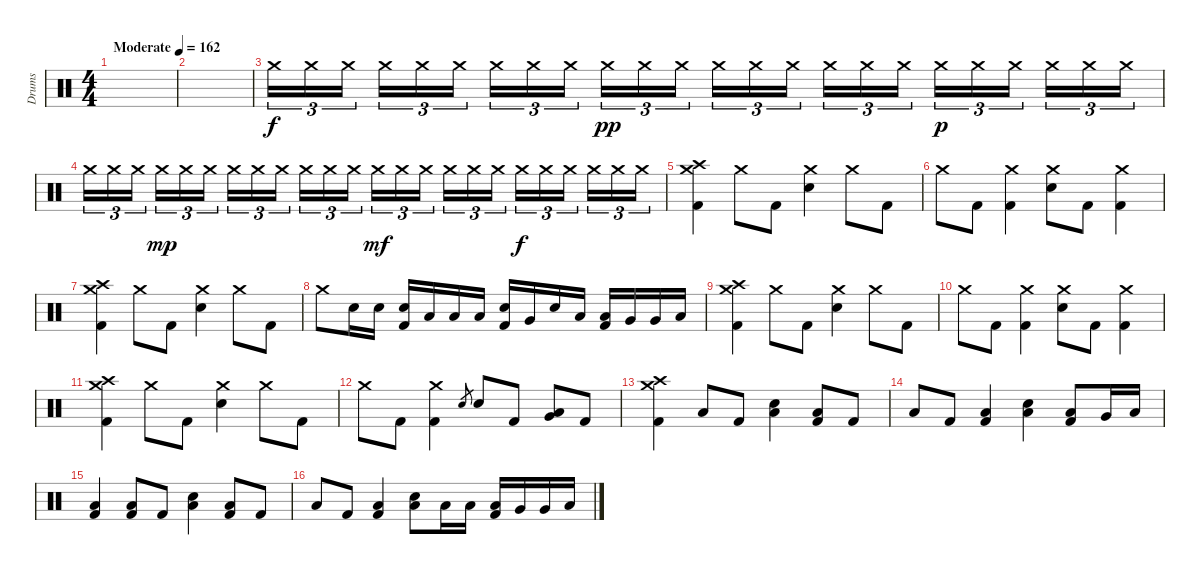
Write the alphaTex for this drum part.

\track ("Drums" "Drums") {instrument percussion}
\staff {score}
\articulation defaults
\ts (4 4)
\tempo (162 "Moderate")
\clef neutral
\ks c
|
|
"Crash medium (hit)".16{tu (3 2) volume 15} "Crash medium (hit)".16{tu (3 2)} "Crash medium (hit)".16{tu (3 2) beam splitsecondary} "Crash medium (hit)".16{tu (3 2)} "Crash medium (hit)".16{tu (3 2)} "Crash medium (hit)".16{tu (3 2)} "Crash medium (hit)".16{tu (3 2)} "Crash medium (hit)".16{tu (3 2)} "Crash medium (hit)".16{tu (3 2) beam splitsecondary} "Crash medium (hit)".16{tu (3 2) dy pp} "Crash medium (hit)".16{tu (3 2)} "Crash medium (hit)".16{tu (3 2)} "Crash medium (hit)".16{tu (3 2)} "Crash medium (hit)".16{tu (3 2)} "Crash medium (hit)".16{tu (3 2) beam splitsecondary} "Crash medium (hit)".16{tu (3 2)} "Crash medium (hit)".16{tu (3 2)} "Crash medium (hit)".16{tu (3 2)} "Crash medium (hit)".16{tu (3 2) dy p} "Crash medium (hit)".16{tu (3 2)} "Crash medium (hit)".16{tu (3 2) beam splitsecondary} "Crash medium (hit)".16{tu (3 2)} "Crash medium (hit)".16{tu (3 2)} "Crash medium (hit)".16{tu (3 2)} |
"Crash medium (hit)".16{tu (3 2)} "Crash medium (hit)".16{tu (3 2)} "Crash medium (hit)".16{tu (3 2) beam splitsecondary} "Crash medium (hit)".16{tu (3 2) dy mp} "Crash medium (hit)".16{tu (3 2)} "Crash medium (hit)".16{tu (3 2)} "Crash medium (hit)".16{tu (3 2)} "Crash medium (hit)".16{tu (3 2)} "Crash medium (hit)".16{tu (3 2) beam splitsecondary} "Crash medium (hit)".16{tu (3 2)} "Crash medium (hit)".16{tu (3 2)} "Crash medium (hit)".16{tu (3 2)} "Crash medium (hit)".16{tu (3 2) dy mf} "Crash medium (hit)".16{tu (3 2)} "Crash medium (hit)".16{tu (3 2) beam splitsecondary} "Crash medium (hit)".16{tu (3 2)} "Crash medium (hit)".16{tu (3 2)} "Crash medium (hit)".16{tu (3 2)} "Crash medium (hit)".16{tu (3 2) dy f} "Crash medium (hit)".16{tu (3 2)} "Crash medium (hit)".16{tu (3 2) beam splitsecondary} "Crash medium (hit)".16{tu (3 2)} "Crash medium (hit)".16{tu (3 2)} "Crash medium (hit)".16{tu (3 2)} |
("Crash medium (hit)" "Crash high (hit)" "Kick (hit) 2").4{volume 16} "Crash medium (hit)".8 "Kick (hit) 2".8 ("Crash medium (hit)" "Electric Snare (hit)").4 "Crash medium (hit)".8 "Kick (hit) 2".8 |
"Crash medium (hit)".8 "Kick (hit) 2".8 ("Crash medium (hit)" "Kick (hit) 2").4 ("Crash medium (hit)" "Electric Snare (hit)").8 "Kick (hit) 2".8 ("Crash medium (hit)" "Kick (hit) 2").4 |
("Crash medium (hit)" "Crash high (hit)" "Kick (hit) 2").4 "Crash medium (hit)".8 "Kick (hit) 2".8 ("Crash medium (hit)" "Electric Snare (hit)").4 "Crash medium (hit)".8 "Kick (hit) 2".8 |
"Crash medium (hit)".8 "Electric Snare (hit)".16 "Electric Snare (hit)".16 ("Electric Snare (hit)" "Kick (hit) 2").16 "Low Tom (hit)".16 "Low Tom (hit)".16 "Low Tom (hit)".16 ("Electric Snare (hit)" "Kick (hit) 2").16 "Very Low Tom (hit)".16 "Electric Snare (hit)".16 "Low Tom (hit)".16 ("Low Tom (hit)" "Kick (hit) 2").16 "Very Low Tom (hit)".16 "Very Low Tom (hit)".16 "Low Floor Tom (hit)".16 |
("Crash medium (hit)" "Crash high (hit)" "Kick (hit) 2").4 "Crash medium (hit)".8 "Kick (hit) 2".8 ("Crash medium (hit)" "Electric Snare (hit)").4 "Crash medium (hit)".8 "Kick (hit) 2".8 |
"Crash medium (hit)".8 "Kick (hit) 2".8 ("Crash medium (hit)" "Kick (hit) 2").4 ("Crash medium (hit)" "Electric Snare (hit)").8 "Kick (hit) 2".8 ("Crash medium (hit)" "Kick (hit) 2").4 |
("Crash medium (hit)" "Crash high (hit)" "Kick (hit) 2").4 "Crash medium (hit)".8 "Kick (hit) 2".8 ("Crash medium (hit)" "Electric Snare (hit)").4 "Crash medium (hit)".8 "Kick (hit) 2".8 |
"Crash medium (hit)".8 "Kick (hit) 2".8 ("Crash medium (hit)" "Kick (hit) 2").4 "Electric Snare (hit)".8{gr} "Electric Snare (hit)".8 "Kick (hit) 2".8 ("Very Low Tom (hit)" "Low Tom (hit)").8{bd 120} "Kick (hit) 2".8 |
("Crash medium (hit)" "Crash high (hit)" "Kick (hit) 2").4 "Low Floor Tom (hit)".8 "Kick (hit) 2".8 ("Low Floor Tom (hit)" "Electric Snare (hit)").4 ("Low Floor Tom (hit)" "Kick (hit) 2").8 "Kick (hit) 2".8 |
"Low Floor Tom (hit)".8 "Kick (hit) 2".8 ("Low Floor Tom (hit)" "Kick (hit) 2").4 ("Low Floor Tom (hit)" "Electric Snare (hit)").4 ("Low Tom (hit)" "Kick (hit) 2").8 "Very Low Tom (hit)".16 "Low Floor Tom (hit)".16 |
("Low Floor Tom (hit)" "Kick (hit) 2").4 ("Low Floor Tom (hit)" "Kick (hit) 2").8 "Kick (hit) 2".8 ("Low Floor Tom (hit)" "Electric Snare (hit)").4 ("Low Floor Tom (hit)" "Kick (hit) 2").8 "Kick (hit) 2".8 |
"Low Floor Tom (hit)".8 "Kick (hit) 2".8 ("Low Floor Tom (hit)" "Kick (hit) 2").4 ("Low Floor Tom (hit)" "Electric Snare (hit)").8 "Low Tom (hit)".16 "Low Tom (hit)".16 ("Low Tom (hit)" "Kick (hit) 2").16 "Very Low Tom (hit)".16 "Very Low Tom (hit)".16 "Low Floor Tom (hit)".16
